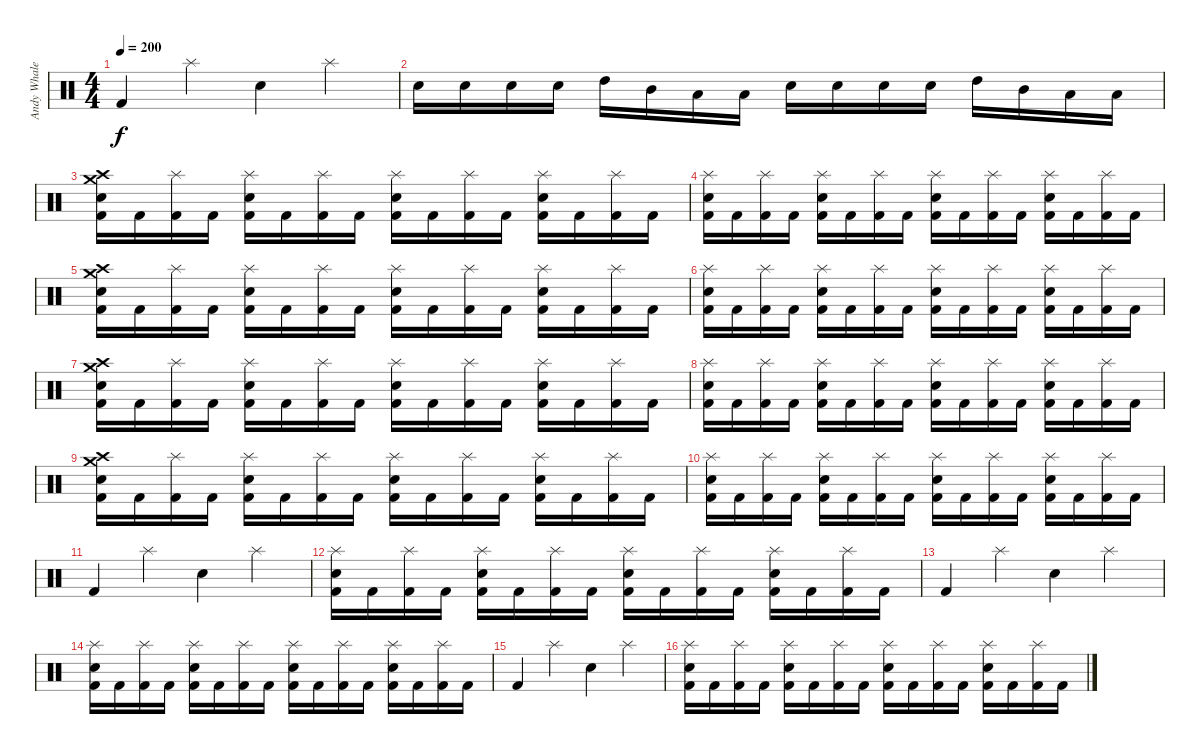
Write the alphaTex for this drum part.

\track ("Andy Whale" "Andy Whale") {instrument percussion}
\staff {score}
\articulation defaults
\ts (4 4)
\tempo 200
\clef neutral
\ks c "Kick (hit) 2".4{dy f} "Splash (hit)".4 "Electric Snare (hit)".4 "Splash (hit)".4
|
"Electric Snare (hit)".16 "Electric Snare (hit)".16 "Electric Snare (hit)".16 "Electric Snare (hit)".16 "High Tom (hit)".16 "Mid Tom (hit)".16 "Low Tom (hit)".16 "Low Tom (hit)".16 "Electric Snare (hit)".16 "Electric Snare (hit)".16 "Electric Snare (hit)".16 "Electric Snare (hit)".16 "High Tom (hit)".16 "Mid Tom (hit)".16 "Low Tom (hit)".16 "Low Tom (hit)".16 |
("Crash medium (hit)" "Crash high (hit)" "Electric Snare (hit)" "Kick (hit) 2").16 "Kick (hit) 2".16 ("Splash (hit)" "Kick (hit) 2").16 "Kick (hit) 2".16 ("Splash (hit)" "Electric Snare (hit)" "Kick (hit) 2").16 "Kick (hit) 2".16 ("Splash (hit)" "Kick (hit) 2").16 "Kick (hit) 2".16 ("Splash (hit)" "Electric Snare (hit)" "Kick (hit) 2").16 "Kick (hit) 2".16 ("Splash (hit)" "Kick (hit) 2").16 "Kick (hit) 2".16 ("Splash (hit)" "Electric Snare (hit)" "Kick (hit) 2").16 "Kick (hit) 2".16 ("Splash (hit)" "Kick (hit) 2").16 "Kick (hit) 2".16 |
("Splash (hit)" "Electric Snare (hit)" "Kick (hit) 2").16 "Kick (hit) 2".16 ("Splash (hit)" "Kick (hit) 2").16 "Kick (hit) 2".16 ("Splash (hit)" "Electric Snare (hit)" "Kick (hit) 2").16 "Kick (hit) 2".16 ("Splash (hit)" "Kick (hit) 2").16 "Kick (hit) 2".16 ("Splash (hit)" "Electric Snare (hit)" "Kick (hit) 2").16 "Kick (hit) 2".16 ("Splash (hit)" "Kick (hit) 2").16 "Kick (hit) 2".16 ("Splash (hit)" "Electric Snare (hit)" "Kick (hit) 2").16 "Kick (hit) 2".16 ("Splash (hit)" "Kick (hit) 2").16 "Kick (hit) 2".16 |
("Crash medium (hit)" "Crash high (hit)" "Electric Snare (hit)" "Kick (hit) 2").16 "Kick (hit) 2".16 ("Splash (hit)" "Kick (hit) 2").16 "Kick (hit) 2".16 ("Splash (hit)" "Electric Snare (hit)" "Kick (hit) 2").16 "Kick (hit) 2".16 ("Splash (hit)" "Kick (hit) 2").16 "Kick (hit) 2".16 ("Splash (hit)" "Electric Snare (hit)" "Kick (hit) 2").16 "Kick (hit) 2".16 ("Splash (hit)" "Kick (hit) 2").16 "Kick (hit) 2".16 ("Splash (hit)" "Electric Snare (hit)" "Kick (hit) 2").16 "Kick (hit) 2".16 ("Splash (hit)" "Kick (hit) 2").16 "Kick (hit) 2".16 |
("Splash (hit)" "Electric Snare (hit)" "Kick (hit) 2").16 "Kick (hit) 2".16 ("Splash (hit)" "Kick (hit) 2").16 "Kick (hit) 2".16 ("Splash (hit)" "Electric Snare (hit)" "Kick (hit) 2").16 "Kick (hit) 2".16 ("Splash (hit)" "Kick (hit) 2").16 "Kick (hit) 2".16 ("Splash (hit)" "Electric Snare (hit)" "Kick (hit) 2").16 "Kick (hit) 2".16 ("Splash (hit)" "Kick (hit) 2").16 "Kick (hit) 2".16 ("Splash (hit)" "Electric Snare (hit)" "Kick (hit) 2").16 "Kick (hit) 2".16 ("Splash (hit)" "Kick (hit) 2").16 "Kick (hit) 2".16 |
("Crash medium (hit)" "Crash high (hit)" "Electric Snare (hit)" "Kick (hit) 2").16 "Kick (hit) 2".16 ("Splash (hit)" "Kick (hit) 2").16 "Kick (hit) 2".16 ("Splash (hit)" "Electric Snare (hit)" "Kick (hit) 2").16 "Kick (hit) 2".16 ("Splash (hit)" "Kick (hit) 2").16 "Kick (hit) 2".16 ("Splash (hit)" "Electric Snare (hit)" "Kick (hit) 2").16 "Kick (hit) 2".16 ("Splash (hit)" "Kick (hit) 2").16 "Kick (hit) 2".16 ("Splash (hit)" "Electric Snare (hit)" "Kick (hit) 2").16 "Kick (hit) 2".16 ("Splash (hit)" "Kick (hit) 2").16 "Kick (hit) 2".16 |
("Splash (hit)" "Electric Snare (hit)" "Kick (hit) 2").16 "Kick (hit) 2".16 ("Splash (hit)" "Kick (hit) 2").16 "Kick (hit) 2".16 ("Splash (hit)" "Electric Snare (hit)" "Kick (hit) 2").16 "Kick (hit) 2".16 ("Splash (hit)" "Kick (hit) 2").16 "Kick (hit) 2".16 ("Splash (hit)" "Electric Snare (hit)" "Kick (hit) 2").16 "Kick (hit) 2".16 ("Splash (hit)" "Kick (hit) 2").16 "Kick (hit) 2".16 ("Splash (hit)" "Electric Snare (hit)" "Kick (hit) 2").16 "Kick (hit) 2".16 ("Splash (hit)" "Kick (hit) 2").16 "Kick (hit) 2".16 |
("Crash medium (hit)" "Crash high (hit)" "Electric Snare (hit)" "Kick (hit) 2").16 "Kick (hit) 2".16 ("Splash (hit)" "Kick (hit) 2").16 "Kick (hit) 2".16 ("Splash (hit)" "Electric Snare (hit)" "Kick (hit) 2").16 "Kick (hit) 2".16 ("Splash (hit)" "Kick (hit) 2").16 "Kick (hit) 2".16 ("Splash (hit)" "Electric Snare (hit)" "Kick (hit) 2").16 "Kick (hit) 2".16 ("Splash (hit)" "Kick (hit) 2").16 "Kick (hit) 2".16 ("Splash (hit)" "Electric Snare (hit)" "Kick (hit) 2").16 "Kick (hit) 2".16 ("Splash (hit)" "Kick (hit) 2").16 "Kick (hit) 2".16 |
("Splash (hit)" "Electric Snare (hit)" "Kick (hit) 2").16 "Kick (hit) 2".16 ("Splash (hit)" "Kick (hit) 2").16 "Kick (hit) 2".16 ("Splash (hit)" "Electric Snare (hit)" "Kick (hit) 2").16 "Kick (hit) 2".16 ("Splash (hit)" "Kick (hit) 2").16 "Kick (hit) 2".16 ("Splash (hit)" "Electric Snare (hit)" "Kick (hit) 2").16 "Kick (hit) 2".16 ("Splash (hit)" "Kick (hit) 2").16 "Kick (hit) 2".16 ("Splash (hit)" "Electric Snare (hit)" "Kick (hit) 2").16 "Kick (hit) 2".16 ("Splash (hit)" "Kick (hit) 2").16 "Kick (hit) 2".16 |
"Kick (hit) 2".4 "Splash (hit)".4 "Electric Snare (hit)".4 "Splash (hit)".4 |
("Splash (hit)" "Electric Snare (hit)" "Kick (hit) 2").16 "Kick (hit) 2".16 ("Splash (hit)" "Kick (hit) 2").16 "Kick (hit) 2".16 ("Splash (hit)" "Electric Snare (hit)" "Kick (hit) 2").16 "Kick (hit) 2".16 ("Splash (hit)" "Kick (hit) 2").16 "Kick (hit) 2".16 ("Splash (hit)" "Electric Snare (hit)" "Kick (hit) 2").16 "Kick (hit) 2".16 ("Splash (hit)" "Kick (hit) 2").16 "Kick (hit) 2".16 ("Splash (hit)" "Electric Snare (hit)" "Kick (hit) 2").16 "Kick (hit) 2".16 ("Splash (hit)" "Kick (hit) 2").16 "Kick (hit) 2".16 |
"Kick (hit) 2".4 "Splash (hit)".4 "Electric Snare (hit)".4 "Splash (hit)".4 |
("Splash (hit)" "Electric Snare (hit)" "Kick (hit) 2").16 "Kick (hit) 2".16 ("Splash (hit)" "Kick (hit) 2").16 "Kick (hit) 2".16 ("Splash (hit)" "Electric Snare (hit)" "Kick (hit) 2").16 "Kick (hit) 2".16 ("Splash (hit)" "Kick (hit) 2").16 "Kick (hit) 2".16 ("Splash (hit)" "Electric Snare (hit)" "Kick (hit) 2").16 "Kick (hit) 2".16 ("Splash (hit)" "Kick (hit) 2").16 "Kick (hit) 2".16 ("Splash (hit)" "Electric Snare (hit)" "Kick (hit) 2").16 "Kick (hit) 2".16 ("Splash (hit)" "Kick (hit) 2").16 "Kick (hit) 2".16 |
"Kick (hit) 2".4 "Splash (hit)".4 "Electric Snare (hit)".4 "Splash (hit)".4 |
("Splash (hit)" "Electric Snare (hit)" "Kick (hit) 2").16 "Kick (hit) 2".16 ("Splash (hit)" "Kick (hit) 2").16 "Kick (hit) 2".16 ("Splash (hit)" "Electric Snare (hit)" "Kick (hit) 2").16 "Kick (hit) 2".16 ("Splash (hit)" "Kick (hit) 2").16 "Kick (hit) 2".16 ("Splash (hit)" "Electric Snare (hit)" "Kick (hit) 2").16 "Kick (hit) 2".16 ("Splash (hit)" "Kick (hit) 2").16 "Kick (hit) 2".16 ("Splash (hit)" "Electric Snare (hit)" "Kick (hit) 2").16 "Kick (hit) 2".16 ("Splash (hit)" "Kick (hit) 2").16 "Kick (hit) 2".16
